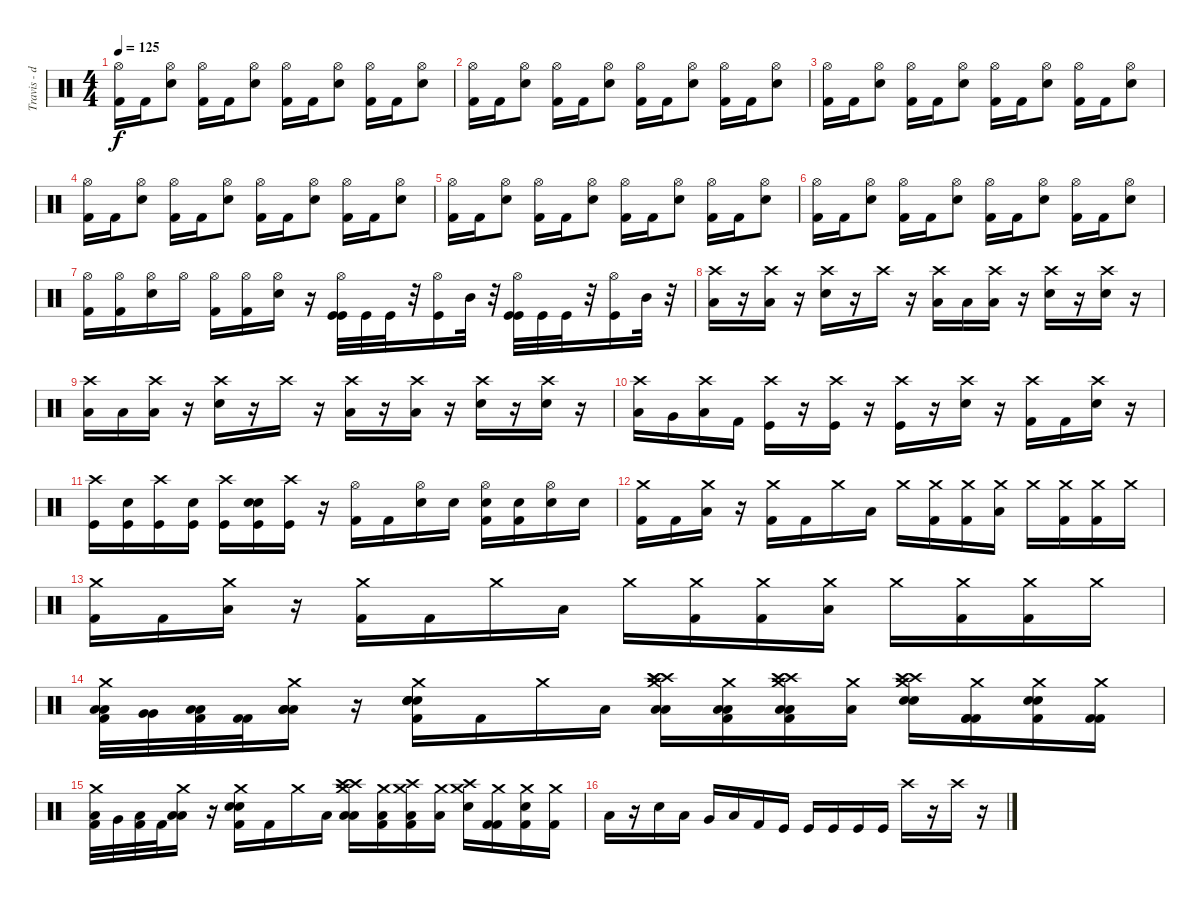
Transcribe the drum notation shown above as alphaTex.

\track ("Travis - drums" "Travis - d") {instrument percussion}
\staff {score}
\articulation defaults
\ts (4 4)
\tempo 125
\clef neutral
\ks c
("Kick (hit) 2" "Hi-Hat (open)").16{dy f} "Kick (hit) 2".16 ("Electric Snare (hit)" "Hi-Hat (open)").8 ("Kick (hit) 2" "Hi-Hat (open)").16 "Kick (hit) 2".16 ("Electric Snare (hit)" "Hi-Hat (open)").8 ("Kick (hit) 2" "Hi-Hat (open)").16 "Kick (hit) 2".16 ("Electric Snare (hit)" "Hi-Hat (open)").8 ("Kick (hit) 2" "Hi-Hat (open)").16 "Kick (hit) 2".16 ("Electric Snare (hit)" "Hi-Hat (open)").8 |
("Kick (hit) 2" "Hi-Hat (open)").16 "Kick (hit) 2".16 ("Electric Snare (hit)" "Hi-Hat (open)").8 ("Kick (hit) 2" "Hi-Hat (open)").16 "Kick (hit) 2".16 ("Electric Snare (hit)" "Hi-Hat (open)").8 ("Kick (hit) 2" "Hi-Hat (open)").16 "Kick (hit) 2".16 ("Electric Snare (hit)" "Hi-Hat (open)").8 ("Kick (hit) 2" "Hi-Hat (open)").16 "Kick (hit) 2".16 ("Electric Snare (hit)" "Hi-Hat (open)").8 |
("Kick (hit) 2" "Hi-Hat (open)").16 "Kick (hit) 2".16 ("Electric Snare (hit)" "Hi-Hat (open)").8 ("Kick (hit) 2" "Hi-Hat (open)").16 "Kick (hit) 2".16 ("Electric Snare (hit)" "Hi-Hat (open)").8 ("Kick (hit) 2" "Hi-Hat (open)").16 "Kick (hit) 2".16 ("Electric Snare (hit)" "Hi-Hat (open)").8 ("Kick (hit) 2" "Hi-Hat (open)").16 "Kick (hit) 2".16 ("Electric Snare (hit)" "Hi-Hat (open)").8 |
("Kick (hit) 2" "Hi-Hat (open)").16 "Kick (hit) 2".16 ("Electric Snare (hit)" "Hi-Hat (open)").8 ("Kick (hit) 2" "Hi-Hat (open)").16 "Kick (hit) 2".16 ("Electric Snare (hit)" "Hi-Hat (open)").8 ("Kick (hit) 2" "Hi-Hat (open)").16 "Kick (hit) 2".16 ("Electric Snare (hit)" "Hi-Hat (open)").8 ("Kick (hit) 2" "Hi-Hat (open)").16 "Kick (hit) 2".16 ("Electric Snare (hit)" "Hi-Hat (open)").8 |
("Kick (hit) 2" "Hi-Hat (open)").16 "Kick (hit) 2".16 ("Electric Snare (hit)" "Hi-Hat (open)").8 ("Kick (hit) 2" "Hi-Hat (open)").16 "Kick (hit) 2".16 ("Electric Snare (hit)" "Hi-Hat (open)").8 ("Kick (hit) 2" "Hi-Hat (open)").16 "Kick (hit) 2".16 ("Electric Snare (hit)" "Hi-Hat (open)").8 ("Kick (hit) 2" "Hi-Hat (open)").16 "Kick (hit) 2".16 ("Electric Snare (hit)" "Hi-Hat (open)").8 |
("Kick (hit) 2" "Hi-Hat (open)").16 "Kick (hit) 2".16 ("Electric Snare (hit)" "Hi-Hat (open)").8 ("Kick (hit) 2" "Hi-Hat (open)").16 "Kick (hit) 2".16 ("Electric Snare (hit)" "Hi-Hat (open)").8 ("Kick (hit) 2" "Hi-Hat (open)").16 "Kick (hit) 2".16 ("Electric Snare (hit)" "Hi-Hat (open)").8 ("Kick (hit) 2" "Hi-Hat (open)").16 "Kick (hit) 2".16 ("Electric Snare (hit)" "Hi-Hat (open)").8 |
("Hi-Hat (open)" "Kick (hit) 2").16 ("Hi-Hat (open)" "Kick (hit) 2").16 ("Hi-Hat (open)" "Electric Snare (hit)").16 "Hi-Hat (open)".16 ("Kick (hit) 2" "Hi-Hat (open)").16 ("Kick (hit) 2" "Hi-Hat (open)").16 ("Electric Snare (hit)" "Hi-Hat (open)").16 r.16 ("Hi-Hat (open)" "Kick (hit)" "Kick (hit)").32 "Kick (hit)".32 "Kick (hit)".32 r.32 ("Hi-Hat (open)" "Kick (hit)").16 "Mid Tom (hit)".32 r.32 ("Hi-Hat (open)" "Kick (hit)" "Kick (hit)").32 "Kick (hit)".32 "Kick (hit)".32 r.32 ("Hi-Hat (open)" "Kick (hit)").16 "Mid Tom (hit)".32 r.32 |
("Low Floor Tom (hit)" "Crash high (hit)").16 r.16 ("Low Floor Tom (hit)" "Crash high (hit)").16 r.16 ("Electric Snare (hit)" "Crash high (hit)").16 r.16 "Crash high (hit)".16 r.16 ("Low Floor Tom (hit)" "Crash high (hit)").16 "Low Floor Tom (hit)".16 ("Low Floor Tom (hit)" "Crash high (hit)").16 r.16 ("Electric Snare (hit)" "Crash high (hit)").16 r.16 ("Electric Snare (hit)" "Crash high (hit)").16 r.16 |
("Low Floor Tom (hit)" "Crash high (hit)").16 "Low Floor Tom (hit)".16 ("Low Floor Tom (hit)" "Crash high (hit)").16 r.16 ("Electric Snare (hit)" "Crash high (hit)").16 r.16 "Crash high (hit)".16 r.16 ("Low Floor Tom (hit)" "Crash high (hit)").16 r.16 ("Low Floor Tom (hit)" "Crash high (hit)").16 r.16 ("Electric Snare (hit)" "Crash high (hit)").16 r.16 ("Electric Snare (hit)" "Crash high (hit)").16 r.16 |
("Low Tom (hit)" "Crash high (hit)").16 "Very Low Tom (hit)".16 ("Low Floor Tom (hit)" "Crash high (hit)").16 "Kick (hit) 2".16 ("Kick (hit)" "Crash high (hit)").16 r.16 ("Kick (hit)" "Crash high (hit)").16 r.16 ("Kick (hit)" "Crash high (hit)").16 r.16 ("Electric Snare (hit)" "Crash high (hit)").16 r.16 ("Kick (hit) 2" "Crash high (hit)").16 "Kick (hit) 2".16 ("Electric Snare (hit)" "Crash high (hit)").16 r.16 |
("Crash high (hit)" "Kick (hit)").16 ("Electric Snare (hit)" "Kick (hit)").16 ("Crash high (hit)" "Kick (hit)").16 ("Electric Snare (hit)" "Kick (hit)").16 ("Crash high (hit)" "Kick (hit)").16 ("Electric Snare (hit)" "Electric Snare (hit)" "Kick (hit)").16 ("Crash high (hit)" "Kick (hit)").16 r.16 ("Kick (hit) 2" "Hi-Hat (open)").16 "Kick (hit) 2".16 ("Electric Snare (hit)" "Hi-Hat (open)").16 "Electric Snare (hit)".16 ("Electric Snare (hit)" "Kick (hit) 2" "Hi-Hat (open)").16 ("Electric Snare (hit)" "Kick (hit) 2").16 ("Electric Snare (hit)" "Hi-Hat (open)").16 "Electric Snare (hit)".16 |
("Kick (hit) 2" "Crash medium (hit)").16 "Kick (hit) 2".16 ("Low Tom (hit)" "Crash medium (hit)").16 r.16 ("Kick (hit) 2" "Crash medium (hit)").16 "Kick (hit) 2".16 "Crash medium (hit)".16 "Low Tom (hit)".16 "Crash medium (hit)".16 ("Kick (hit) 2" "Crash medium (hit)").16 ("Kick (hit) 2" "Crash medium (hit)").16 ("Low Tom (hit)" "Crash medium (hit)").16 "Crash medium (hit)".16 ("Kick (hit) 2" "Crash medium (hit)").16 ("Kick (hit) 2" "Crash medium (hit)").16 "Crash medium (hit)".16 |
("Kick (hit) 2" "Crash medium (hit)").16 "Kick (hit) 2".16 ("Low Tom (hit)" "Crash medium (hit)").16 r.16 ("Kick (hit) 2" "Crash medium (hit)").16 "Kick (hit) 2".16 "Crash medium (hit)".16 "Low Tom (hit)".16 "Crash medium (hit)".16 ("Kick (hit) 2" "Crash medium (hit)").16 ("Kick (hit) 2" "Crash medium (hit)").16 ("Low Tom (hit)" "Crash medium (hit)").16 "Crash medium (hit)".16 ("Kick (hit) 2" "Crash medium (hit)").16 ("Kick (hit) 2" "Crash medium (hit)").16 "Crash medium (hit)".16 |
("Kick (hit) 2" "Crash medium (hit)" "Low Floor Tom (hit)" "Low Floor Tom (hit)").32 ("Very Low Tom (hit)" "Very Low Tom (hit)").32 ("Kick (hit) 2" "Low Floor Tom (hit)" "Low Floor Tom (hit)").32 ("Kick (hit) 2" "Kick (hit) 2").32 ("Low Tom (hit)" "Crash medium (hit)" "Low Floor Tom (hit)" "Low Floor Tom (hit)").16 r.16 ("Kick (hit) 2" "Crash medium (hit)" "Electric Snare (hit)" "Electric Snare (hit)" "Electric Snare (hit)" "Electric Snare (hit)").16 "Kick (hit) 2".16 "Crash medium (hit)".16 "Low Tom (hit)".16 ("Crash medium (hit)" "Crash high (hit)" "Low Floor Tom (hit)" "Low Floor Tom (hit)" "Crash high (hit)" "Crash high (hit)").16 ("Kick (hit) 2" "Crash medium (hit)" "Low Floor Tom (hit)" "Low Floor Tom (hit)").16 ("Kick (hit) 2" "Crash medium (hit)" "Low Floor Tom (hit)" "Crash high (hit)" "Low Floor Tom (hit)" "Crash high (hit)").16 ("Low Tom (hit)" "Crash medium (hit)").16 ("Crash medium (hit)" "Crash high (hit)" "Electric Snare (hit)" "Crash high (hit)" "Electric Snare (hit)").16 ("Kick (hit) 2" "Crash medium (hit)" "Kick (hit) 2" "Kick (hit) 2").16 ("Kick (hit) 2" "Crash medium (hit)" "Electric Snare (hit)" "Electric Snare (hit)").16 ("Crash medium (hit)" "Kick (hit) 2" "Kick (hit) 2").16 |
("Kick (hit) 2" "Crash medium (hit)" "Low Floor Tom (hit)").32 "Very Low Tom (hit)".32 ("Kick (hit) 2" "Low Floor Tom (hit)").32 "Kick (hit) 2".32 ("Low Tom (hit)" "Crash medium (hit)" "Low Floor Tom (hit)").16 r.16 ("Kick (hit) 2" "Crash medium (hit)" "Electric Snare (hit)" "Electric Snare (hit)").16 "Kick (hit) 2".16 "Crash medium (hit)".16 "Low Tom (hit)".16 ("Crash medium (hit)" "Crash high (hit)" "Low Floor Tom (hit)" "Low Floor Tom (hit)" "Crash high (hit)").16 ("Kick (hit) 2" "Crash medium (hit)" "Low Floor Tom (hit)").16 ("Kick (hit) 2" "Crash medium (hit)" "Low Floor Tom (hit)" "Crash high (hit)").16 ("Low Tom (hit)" "Crash medium (hit)").16 ("Crash medium (hit)" "Crash high (hit)" "Electric Snare (hit)").16 ("Kick (hit) 2" "Crash medium (hit)" "Kick (hit) 2").16 ("Kick (hit) 2" "Crash medium (hit)" "Electric Snare (hit)").16 ("Crash medium (hit)" "Kick (hit) 2").16 |
"Low Tom (hit)".16 r.16 "Electric Snare (hit)".16 "Low Tom (hit)".16 "Very Low Tom (hit)".16 "Low Floor Tom (hit)".16 "Kick (hit) 2".16 "Kick (hit)".16 "Kick (hit)".16 "Kick (hit)".16 "Kick (hit)".16 "Kick (hit)".16 "Crash high (hit)".16 r.16 "Crash high (hit)".16 r.16
